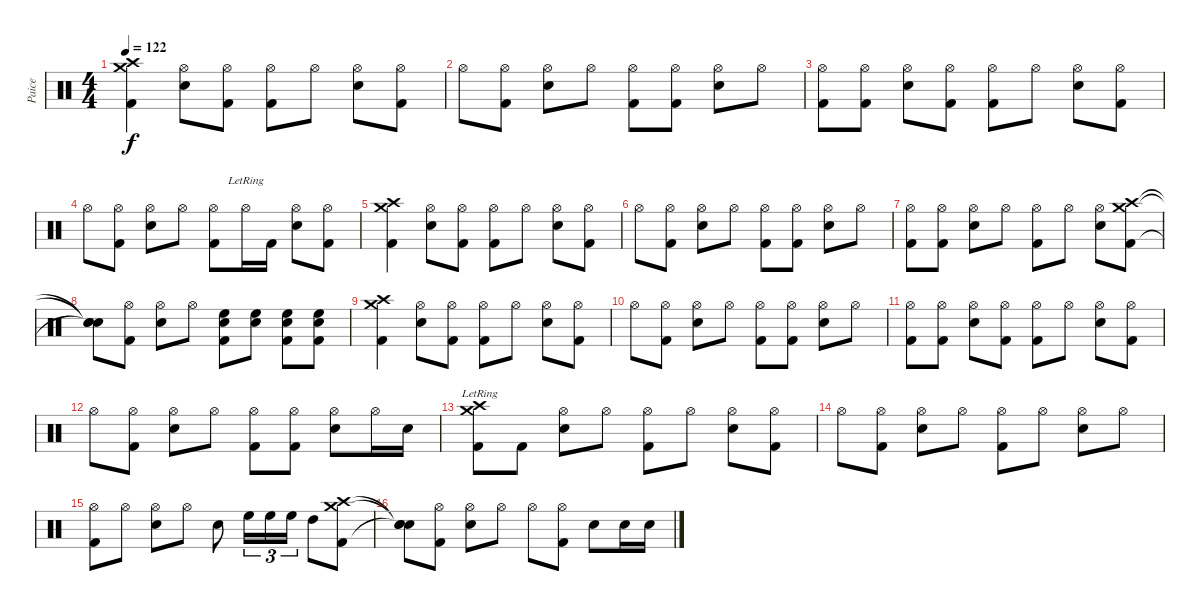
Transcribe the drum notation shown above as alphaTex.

\track ("Paice" "Paice") {instrument percussion}
\staff {score}
\articulation defaults
\ts (4 4)
\tempo 122
\clef neutral
\ks c
("Crash high (hit)" "Crash medium (hit)" "Kick (hit) 2").4{dy f} ("Hi-Hat (open)" "Electric Snare (hit)").8 ("Hi-Hat (open)" "Kick (hit) 2").8 ("Hi-Hat (open)" "Kick (hit) 2").8 "Hi-Hat (open)".8 ("Hi-Hat (open)" "Electric Snare (hit)").8 ("Hi-Hat (open)" "Kick (hit) 2").8 |
"Hi-Hat (open)".8 ("Hi-Hat (open)" "Kick (hit) 2").8 ("Hi-Hat (open)" "Electric Snare (hit)").8 "Hi-Hat (open)".8 ("Hi-Hat (open)" "Kick (hit) 2").8 ("Hi-Hat (open)" "Kick (hit) 2").8 ("Hi-Hat (open)" "Electric Snare (hit)").8 "Hi-Hat (open)".8 |
("Hi-Hat (open)" "Kick (hit) 2").8 ("Hi-Hat (open)" "Kick (hit) 2").8 ("Hi-Hat (open)" "Electric Snare (hit)").8 ("Hi-Hat (open)" "Kick (hit) 2").8 ("Hi-Hat (open)" "Kick (hit) 2").8 "Hi-Hat (open)".8 ("Hi-Hat (open)" "Electric Snare (hit)").8 ("Hi-Hat (open)" "Kick (hit) 2").8 |
"Hi-Hat (open)".8 ("Hi-Hat (open)" "Kick (hit) 2").8 ("Hi-Hat (open)" "Electric Snare (hit)").8 "Hi-Hat (open)".8 ("Hi-Hat (open)" "Kick (hit) 2").8 "Hi-Hat (open)"{lr}.16 "Kick (hit) 2".16 ("Hi-Hat (open)" "Electric Snare (hit)").8 ("Hi-Hat (open)" "Kick (hit) 2").8 |
("Crash high (hit)" "Crash medium (hit)" "Kick (hit) 2").4 ("Hi-Hat (open)" "Electric Snare (hit)").8 ("Hi-Hat (open)" "Kick (hit) 2").8 ("Hi-Hat (open)" "Kick (hit) 2").8 "Hi-Hat (open)".8 ("Hi-Hat (open)" "Electric Snare (hit)").8 ("Hi-Hat (open)" "Kick (hit) 2").8 |
"Hi-Hat (open)".8 ("Hi-Hat (open)" "Kick (hit) 2").8 ("Hi-Hat (open)" "Electric Snare (hit)").8 "Hi-Hat (open)".8 ("Hi-Hat (open)" "Kick (hit) 2").8 ("Hi-Hat (open)" "Kick (hit) 2").8 ("Hi-Hat (open)" "Electric Snare (hit)").8 "Hi-Hat (open)".8 |
("Hi-Hat (open)" "Kick (hit) 2").8 ("Hi-Hat (open)" "Kick (hit) 2").8 ("Hi-Hat (open)" "Electric Snare (hit)").8 "Hi-Hat (open)".8 ("Hi-Hat (open)" "Kick (hit) 2").8 "Hi-Hat (open)".8 ("Hi-Hat (open)" "Electric Snare (hit)").8 ("Crash high (hit)" "Crash medium (hit)" "Kick (hit) 2").8 |
("Snare (hit)"{t} "Snare (hit)"{t} "Snare (hit)"{t}).8 ("Hi-Hat (open)" "Kick (hit) 2").8 ("Hi-Hat (open)" "Electric Snare (hit)").8 "Hi-Hat (open)".8 ("High Floor Tom (hit)" "Electric Snare (hit)" "Kick (hit) 2").8 ("High Floor Tom (hit)" "Electric Snare (hit)").8 ("High Floor Tom (hit)" "Electric Snare (hit)" "Kick (hit) 2").8 ("High Floor Tom (hit)" "Electric Snare (hit)" "Kick (hit) 2").8 |
("Crash high (hit)" "Crash medium (hit)" "Kick (hit) 2").4 ("Hi-Hat (open)" "Electric Snare (hit)").8 ("Hi-Hat (open)" "Kick (hit) 2").8 ("Hi-Hat (open)" "Kick (hit) 2").8 "Hi-Hat (open)".8 ("Hi-Hat (open)" "Electric Snare (hit)").8 ("Hi-Hat (open)" "Kick (hit) 2").8 |
"Hi-Hat (open)".8 ("Hi-Hat (open)" "Kick (hit) 2").8 ("Hi-Hat (open)" "Electric Snare (hit)").8 "Hi-Hat (open)".8 ("Hi-Hat (open)" "Kick (hit) 2").8 ("Hi-Hat (open)" "Kick (hit) 2").8 ("Hi-Hat (open)" "Electric Snare (hit)").8 "Hi-Hat (open)".8 |
("Hi-Hat (open)" "Kick (hit) 2").8 ("Hi-Hat (open)" "Kick (hit) 2").8 ("Hi-Hat (open)" "Electric Snare (hit)").8 ("Hi-Hat (open)" "Kick (hit) 2").8 ("Hi-Hat (open)" "Kick (hit) 2").8 "Hi-Hat (open)".8 ("Hi-Hat (open)" "Electric Snare (hit)").8 ("Hi-Hat (open)" "Kick (hit) 2").8 |
"Hi-Hat (open)".8 ("Hi-Hat (open)" "Kick (hit) 2").8 ("Hi-Hat (open)" "Electric Snare (hit)").8 "Hi-Hat (open)".8 ("Hi-Hat (open)" "Kick (hit) 2").8 ("Hi-Hat (open)" "Kick (hit) 2").8 ("Hi-Hat (open)" "Electric Snare (hit)").8 "Hi-Hat (open)".16 "Electric Snare (hit)".16 |
("Crash high (hit)"{lr} "Crash medium (hit)"{lr} "Kick (hit) 2").8 "Kick (hit) 2".8 ("Hi-Hat (open)" "Electric Snare (hit)").8 "Hi-Hat (open)".8 ("Hi-Hat (open)" "Kick (hit) 2").8 "Hi-Hat (open)".8 ("Hi-Hat (open)" "Electric Snare (hit)").8 ("Hi-Hat (open)" "Kick (hit) 2").8 |
"Hi-Hat (open)".8 ("Hi-Hat (open)" "Kick (hit) 2").8 ("Hi-Hat (open)" "Electric Snare (hit)").8 "Hi-Hat (open)".8 ("Hi-Hat (open)" "Kick (hit) 2").8 "Hi-Hat (open)".8 ("Hi-Hat (open)" "Electric Snare (hit)").8 "Hi-Hat (open)".8 |
("Hi-Hat (open)" "Kick (hit) 2").8 "Hi-Hat (open)".8 ("Hi-Hat (open)" "Electric Snare (hit)").8 "Hi-Hat (open)".8 "Electric Snare (hit)".8 "High Floor Tom (hit)".16{tu (3 2)} "High Floor Tom (hit)".16{tu (3 2)} "High Floor Tom (hit)".16{tu (3 2)} "High Tom (hit)".8 ("Crash high (hit)" "Crash medium (hit)" "Kick (hit) 2").8 |
("Snare (hit)"{t} "Snare (hit)"{t} "Snare (hit)"{t}).8 ("Hi-Hat (open)" "Kick (hit) 2").8 ("Hi-Hat (open)" "Electric Snare (hit)").8 "Hi-Hat (open)".8 "Hi-Hat (open)".8 ("Hi-Hat (open)" "Kick (hit) 2").8 "Electric Snare (hit)".8 "Electric Snare (hit)".16 "Electric Snare (hit)".16
